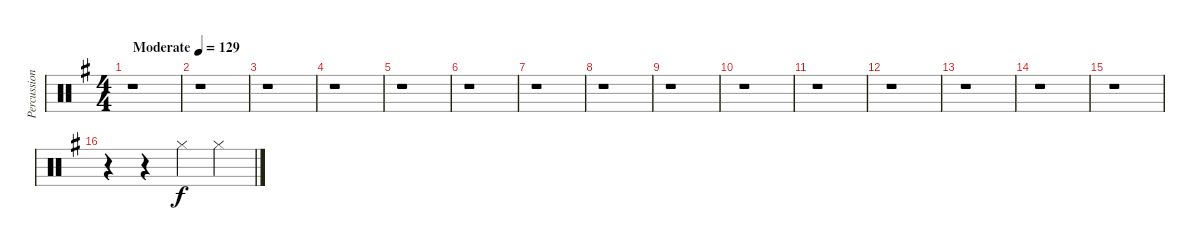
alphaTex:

\track ("Percussions" "Percussion") {instrument percussion}
\staff {score}
\articulation defaults
\ts (4 4)
\tempo (129 "Moderate")
\clef neutral
\ks g
r.1{dy f} |
r.1 |
r.1 |
r.1 |
r.1 |
r.1 |
r.1 |
r.1 |
r.1 |
r.1 |
r.1 |
r.1 |
r.1 |
r.1 |
r.1 |
r.4 r.4 "Hi-Hat (closed)".4 "Hi-Hat (closed)".4
